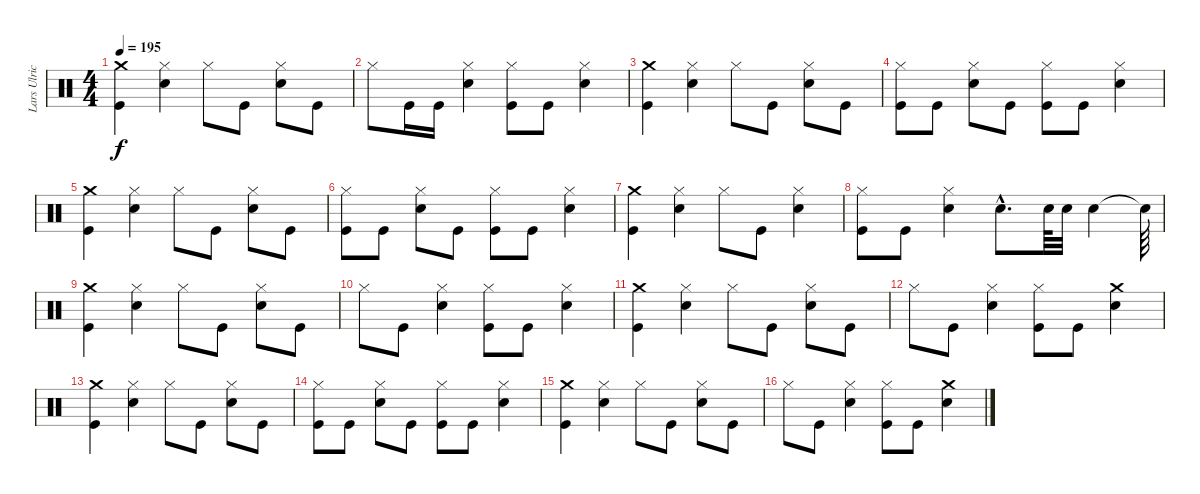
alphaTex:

\track ("Lars Ulrich (Drums)" "Lars Ulric") {instrument percussion}
\staff {score}
\articulation defaults
\ts (4 4)
\tempo 195
\clef neutral
\ks c
("Kick (hit)" "Crash medium (hit)").4{dy f} ("Hi-Hat (closed)" "Snare (hit) 2").4 "Hi-Hat (closed)".8 "Kick (hit)".8 ("Snare (hit) 2" "Hi-Hat (closed)").8 "Kick (hit)".8 |
"Hi-Hat (closed)".8 "Kick (hit)".16 "Kick (hit)".16 ("Snare (hit) 2" "Hi-Hat (closed)").4 ("Hi-Hat (closed)" "Kick (hit)").8 "Kick (hit)".8 ("Snare (hit) 2" "Hi-Hat (closed)").4 |
("Kick (hit)" "Crash medium (hit)").4 ("Hi-Hat (closed)" "Snare (hit) 2").4 "Hi-Hat (closed)".8 "Kick (hit)".8 ("Snare (hit) 2" "Hi-Hat (closed)").8 "Kick (hit)".8 |
("Hi-Hat (closed)" "Kick (hit)").8 "Kick (hit)".8 ("Snare (hit) 2" "Hi-Hat (closed)").8 "Kick (hit)".8 ("Hi-Hat (closed)" "Kick (hit)").8 "Kick (hit)".8 ("Snare (hit) 2" "Hi-Hat (closed)").4 |
("Kick (hit)" "Crash medium (hit)").4 ("Hi-Hat (closed)" "Snare (hit) 2").4 "Hi-Hat (closed)".8 "Kick (hit)".8 ("Snare (hit) 2" "Hi-Hat (closed)").8 "Kick (hit)".8 |
("Hi-Hat (closed)" "Kick (hit)").8 "Kick (hit)".8 ("Snare (hit) 2" "Hi-Hat (closed)").8 "Kick (hit)".8 ("Hi-Hat (closed)" "Kick (hit)").8 "Kick (hit)".8 ("Snare (hit) 2" "Hi-Hat (closed)").4 |
("Kick (hit)" "Crash medium (hit)").4 ("Snare (hit) 2" "Hi-Hat (closed)").4 "Hi-Hat (closed)".8 "Kick (hit)".8 ("Snare (hit) 2" "Hi-Hat (closed)").4 |
("Hi-Hat (closed)" "Kick (hit)").8 "Kick (hit)".8 ("Snare (hit) 2" "Hi-Hat (closed)").4 "Snare (hit) 2"{hac}.8{d} "Snare (hit) 2".64 "Snare (hit) 2".32 "Snare (hit) 2".4 "Snare (hit)"{t}.64 |
("Kick (hit)" "Crash medium (hit)").4 ("Hi-Hat (closed)" "Snare (hit) 2").4 "Hi-Hat (closed)".8 "Kick (hit)".8 ("Snare (hit) 2" "Hi-Hat (closed)").8 "Kick (hit)".8 |
"Hi-Hat (closed)".8 "Kick (hit)".8 ("Snare (hit) 2" "Hi-Hat (closed)").4 ("Hi-Hat (closed)" "Kick (hit)").8 "Kick (hit)".8 ("Snare (hit) 2" "Hi-Hat (closed)").4 |
("Kick (hit)" "Crash medium (hit)").4 ("Hi-Hat (closed)" "Snare (hit) 2").4 "Hi-Hat (closed)".8 "Kick (hit)".8 ("Snare (hit) 2" "Hi-Hat (closed)").8 "Kick (hit)".8 |
"Hi-Hat (closed)".8 "Kick (hit)".8 ("Snare (hit) 2" "Hi-Hat (closed)").4 ("Hi-Hat (closed)" "Kick (hit)").8 "Kick (hit)".8 ("Crash medium (hit)" "Snare (hit) 2").4 |
("Kick (hit)" "Crash medium (hit)").4 ("Hi-Hat (closed)" "Snare (hit) 2").4 "Hi-Hat (closed)".8 "Kick (hit)".8 ("Snare (hit) 2" "Hi-Hat (closed)").8 "Kick (hit)".8 |
("Hi-Hat (closed)" "Kick (hit)").8 "Kick (hit)".8 ("Snare (hit) 2" "Hi-Hat (closed)").8 "Kick (hit)".8 ("Hi-Hat (closed)" "Kick (hit)").8 "Kick (hit)".8 ("Snare (hit) 2" "Hi-Hat (closed)").4 |
("Kick (hit)" "Crash medium (hit)").4 ("Hi-Hat (closed)" "Snare (hit) 2").4 "Hi-Hat (closed)".8 "Kick (hit)".8 ("Snare (hit) 2" "Hi-Hat (closed)").8 "Kick (hit)".8 |
"Hi-Hat (closed)".8 "Kick (hit)".8 ("Snare (hit) 2" "Hi-Hat (closed)").4 ("Hi-Hat (closed)" "Kick (hit)").8 "Kick (hit)".8 ("Crash medium (hit)" "Snare (hit) 2").4
